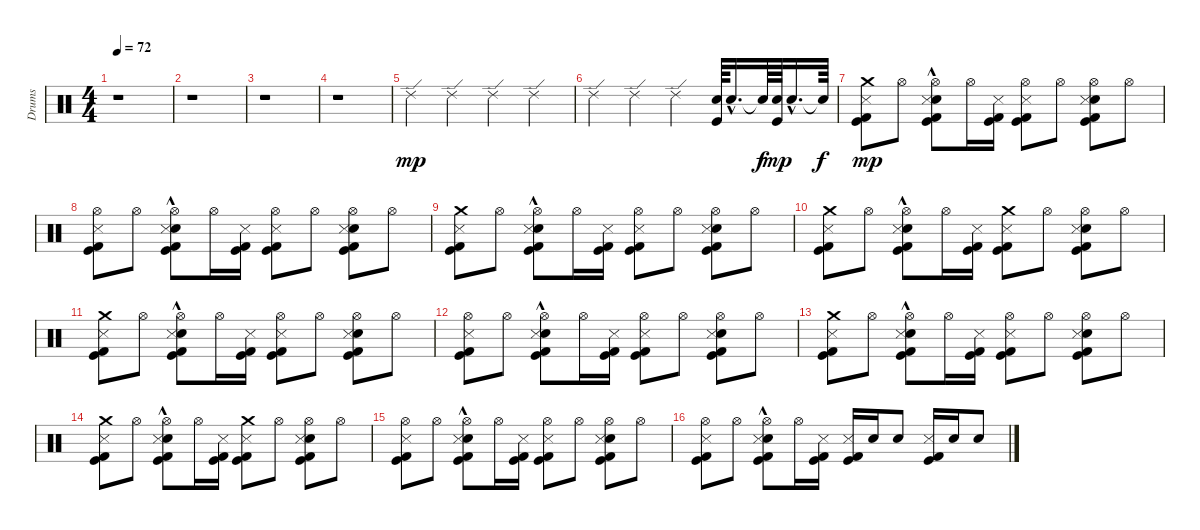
\track ("Drums" "Drums") {instrument percussion}
\staff {score}
\articulation defaults
\ts (4 4)
\tempo 72
\clef neutral
\ks c
r.1{dy p} |
r.1 |
r.1 |
r.1 |
"Ride (edge) 2".4{dy mp} "Ride (edge) 2".4 "Ride (edge) 2".4 "Ride (edge) 2".4 |
"Ride (edge) 2".4 "Ride (edge) 2".4 "Ride (edge) 2".4 ("Snare (hit) 2" "Kick (hit)").64 "Snare (hit) 2"{hac}.16{d} "Snare (hit)"{t}.64{dy f} ("Snare (hit) 2" "Kick (hit)").64{dy mp} "Snare (hit) 2"{hac}.16{d} "Snare (hit)"{t}.64{dy f} |
("Crash medium (hit)" "Metronome (hit)" "Kick (hit)" "Kick (hit) 2").8{dy mp} "Hi-Hat (open)".8 ("Snare (hit) 2" "Hi-Hat (open)" "Metronome (hit)"{hac} "Kick (hit)"{hac} "Kick (hit) 2"{hac}).8 "Hi-Hat (open)".16 ("Metronome (hit)" "Kick (hit)" "Kick (hit) 2").16 ("Hi-Hat (open)" "Metronome (hit)" "Kick (hit)" "Kick (hit) 2").8 "Hi-Hat (open)".8 ("Snare (hit) 2" "Hi-Hat (open)" "Metronome (hit)" "Kick (hit)" "Kick (hit) 2").8 "Hi-Hat (open)".8 |
("Hi-Hat (open)" "Metronome (hit)" "Kick (hit)" "Kick (hit) 2").8 "Hi-Hat (open)".8 ("Snare (hit) 2" "Hi-Hat (open)" "Metronome (hit)"{hac} "Kick (hit)"{hac} "Kick (hit) 2"{hac}).8 "Hi-Hat (open)".16 ("Metronome (hit)" "Kick (hit)" "Kick (hit) 2").16 ("Hi-Hat (open)" "Metronome (hit)" "Kick (hit)" "Kick (hit) 2").8 "Hi-Hat (open)".8 ("Snare (hit) 2" "Hi-Hat (open)" "Metronome (hit)" "Kick (hit)" "Kick (hit) 2").8 "Hi-Hat (open)".8 |
("Crash medium (hit)" "Metronome (hit)" "Kick (hit)" "Kick (hit) 2").8 "Hi-Hat (open)".8 ("Snare (hit) 2" "Hi-Hat (open)" "Metronome (hit)"{hac} "Kick (hit)"{hac} "Kick (hit) 2"{hac}).8 "Hi-Hat (open)".16 ("Metronome (hit)" "Kick (hit)" "Kick (hit) 2").16 ("Hi-Hat (open)" "Metronome (hit)" "Kick (hit)" "Kick (hit) 2").8 "Hi-Hat (open)".8 ("Snare (hit) 2" "Hi-Hat (open)" "Metronome (hit)" "Kick (hit)" "Kick (hit) 2").8 "Hi-Hat (open)".8 |
("Crash medium (hit)" "Metronome (hit)" "Kick (hit)" "Kick (hit) 2").8 "Hi-Hat (open)".8 ("Snare (hit) 2" "Hi-Hat (open)" "Metronome (hit)"{hac} "Kick (hit)"{hac} "Kick (hit) 2"{hac}).8 "Hi-Hat (open)".16 ("Metronome (hit)" "Kick (hit)" "Kick (hit) 2").16 ("Crash medium (hit)" "Metronome (hit)" "Kick (hit)" "Kick (hit) 2").8 "Hi-Hat (open)".8 ("Snare (hit) 2" "Hi-Hat (open)" "Metronome (hit)" "Kick (hit)" "Kick (hit) 2").8 "Hi-Hat (open)".8 |
("Crash medium (hit)" "Metronome (hit)" "Kick (hit)" "Kick (hit) 2").8 "Hi-Hat (open)".8 ("Snare (hit) 2" "Hi-Hat (open)" "Metronome (hit)"{hac} "Kick (hit)"{hac} "Kick (hit) 2"{hac}).8 "Hi-Hat (open)".16 ("Metronome (hit)" "Kick (hit)" "Kick (hit) 2").16 ("Hi-Hat (open)" "Metronome (hit)" "Kick (hit)" "Kick (hit) 2").8 "Hi-Hat (open)".8 ("Snare (hit) 2" "Hi-Hat (open)" "Metronome (hit)" "Kick (hit)" "Kick (hit) 2").8 "Hi-Hat (open)".8 |
("Hi-Hat (open)" "Metronome (hit)" "Kick (hit)" "Kick (hit) 2").8 "Hi-Hat (open)".8 ("Snare (hit) 2" "Hi-Hat (open)" "Metronome (hit)"{hac} "Kick (hit)"{hac} "Kick (hit) 2"{hac}).8 "Hi-Hat (open)".16 ("Metronome (hit)" "Kick (hit)" "Kick (hit) 2").16 ("Hi-Hat (open)" "Metronome (hit)" "Kick (hit)" "Kick (hit) 2").8 "Hi-Hat (open)".8 ("Snare (hit) 2" "Hi-Hat (open)" "Metronome (hit)" "Kick (hit)" "Kick (hit) 2").8 "Hi-Hat (open)".8 |
("Crash medium (hit)" "Metronome (hit)" "Kick (hit)" "Kick (hit) 2").8 "Hi-Hat (open)".8 ("Snare (hit) 2" "Hi-Hat (open)" "Metronome (hit)"{hac} "Kick (hit)"{hac} "Kick (hit) 2"{hac}).8 "Hi-Hat (open)".16 ("Metronome (hit)" "Kick (hit)" "Kick (hit) 2").16 ("Hi-Hat (open)" "Metronome (hit)" "Kick (hit)" "Kick (hit) 2").8 "Hi-Hat (open)".8 ("Snare (hit) 2" "Hi-Hat (open)" "Metronome (hit)" "Kick (hit)" "Kick (hit) 2").8 "Hi-Hat (open)".8 |
("Crash medium (hit)" "Metronome (hit)" "Kick (hit)" "Kick (hit) 2").8 "Hi-Hat (open)".8 ("Snare (hit) 2" "Hi-Hat (open)" "Metronome (hit)"{hac} "Kick (hit)"{hac} "Kick (hit) 2"{hac}).8 "Hi-Hat (open)".16 ("Metronome (hit)" "Kick (hit)" "Kick (hit) 2").16 ("Crash medium (hit)" "Metronome (hit)" "Kick (hit)" "Kick (hit) 2").8 "Hi-Hat (open)".8 ("Snare (hit) 2" "Hi-Hat (open)" "Metronome (hit)" "Kick (hit)" "Kick (hit) 2").8 "Hi-Hat (open)".8 |
("Hi-Hat (open)" "Metronome (hit)" "Kick (hit)" "Kick (hit) 2").8 "Hi-Hat (open)".8 ("Snare (hit) 2" "Hi-Hat (open)" "Metronome (hit)"{hac} "Kick (hit)"{hac} "Kick (hit) 2"{hac}).8 "Hi-Hat (open)".16 ("Metronome (hit)" "Kick (hit)" "Kick (hit) 2").16 ("Hi-Hat (open)" "Metronome (hit)" "Kick (hit)" "Kick (hit) 2").8 "Hi-Hat (open)".8 ("Snare (hit) 2" "Hi-Hat (open)" "Metronome (hit)" "Kick (hit)" "Kick (hit) 2").8 "Hi-Hat (open)".8 |
("Hi-Hat (open)" "Metronome (hit)" "Kick (hit)" "Kick (hit) 2").8 "Hi-Hat (open)".8 ("Snare (hit) 2" "Hi-Hat (open)" "Metronome (hit)"{hac} "Kick (hit)"{hac} "Kick (hit) 2"{hac}).8 "Hi-Hat (open)".16 ("Metronome (hit)" "Kick (hit)" "Kick (hit) 2").16 ("Metronome (hit)" "Kick (hit)" "Kick (hit) 2").16 "Snare (hit) 2".16 "Snare (hit) 2".8 ("Metronome (hit)" "Kick (hit)" "Kick (hit) 2").16 "Snare (hit) 2".16 "Snare (hit) 2".8
